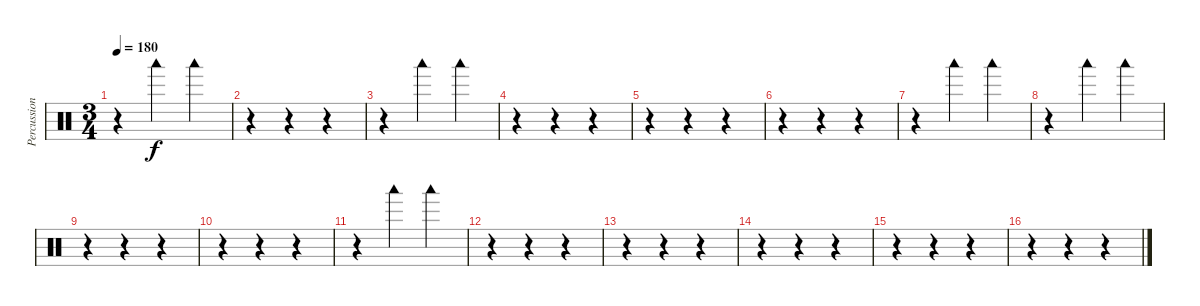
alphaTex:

\track ("Percussions" "Percussion") {instrument percussion}
\staff {score}
\articulation defaults
\ts (3 4)
\tempo 180
\clef neutral
\ks c
r.4{dy f} "Woodblock low (hit)".4 "Woodblock low (hit)".4 |
r.4 r.4 r.4 |
r.4 "Woodblock low (hit)".4 "Woodblock low (hit)".4 |
r.4 r.4 r.4 |
r.4 r.4 r.4 |
r.4 r.4 r.4 |
r.4 "Woodblock low (hit)".4 "Woodblock low (hit)".4 |
r.4 "Woodblock low (hit)".4 "Woodblock low (hit)".4 |
r.4 r.4 r.4 |
r.4 r.4 r.4 |
r.4 "Woodblock low (hit)".4 "Woodblock low (hit)".4 |
r.4 r.4 r.4 |
r.4 r.4 r.4 |
r.4 r.4 r.4 |
r.4 r.4 r.4 |
r.4 r.4 r.4
